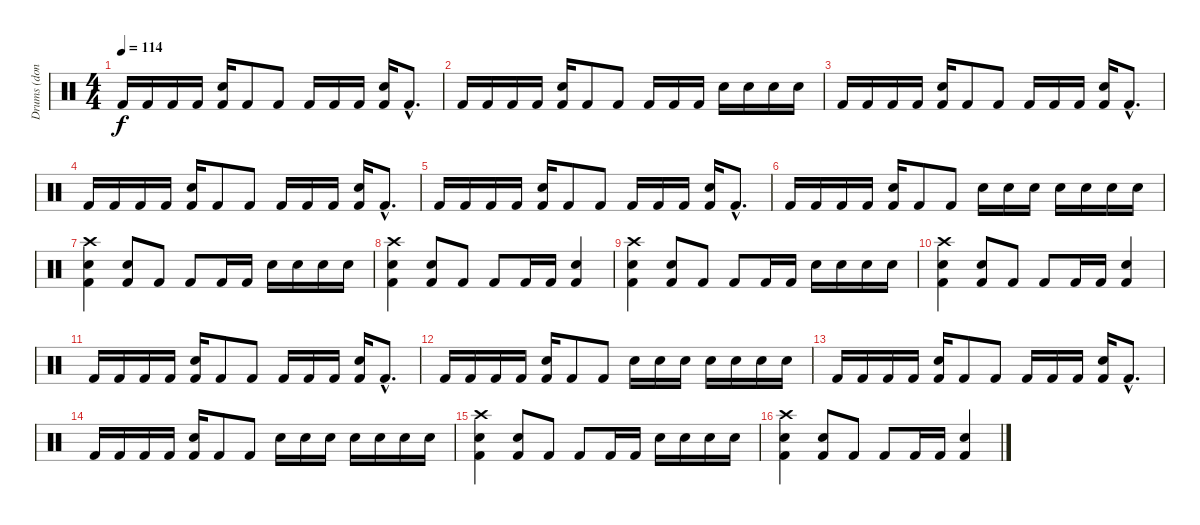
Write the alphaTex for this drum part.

\track ("Drums (done badly)" "Drums (don") {instrument percussion}
\staff {score}
\articulation defaults
\ts (4 4)
\tempo 114
\clef neutral
\ks c "Kick (hit) 2".16{dy f} "Kick (hit) 2".16 "Kick (hit) 2".16 "Kick (hit) 2".16
("Snare (hit) 2" "Kick (hit) 2").16 "Kick (hit) 2".8 "Kick (hit) 2".8 "Kick (hit) 2".16 "Kick (hit) 2".16 "Kick (hit) 2".16 ("Snare (hit) 2" "Kick (hit) 2").16 "Kick (hit) 2"{hac}.8{d} |
"Kick (hit) 2".16 "Kick (hit) 2".16 "Kick (hit) 2".16 "Kick (hit) 2".16 ("Snare (hit) 2" "Kick (hit) 2").16 "Kick (hit) 2".8 "Kick (hit) 2".8 "Kick (hit) 2".16 "Kick (hit) 2".16 "Kick (hit) 2".16 "Snare (hit) 2".16 "Snare (hit) 2".16 "Snare (hit) 2".16 "Snare (hit) 2".16 |
"Kick (hit) 2".16 "Kick (hit) 2".16 "Kick (hit) 2".16 "Kick (hit) 2".16 ("Snare (hit) 2" "Kick (hit) 2").16 "Kick (hit) 2".8 "Kick (hit) 2".8 "Kick (hit) 2".16 "Kick (hit) 2".16 "Kick (hit) 2".16 ("Snare (hit) 2" "Kick (hit) 2").16 "Kick (hit) 2"{hac}.8{d} |
"Kick (hit) 2".16 "Kick (hit) 2".16 "Kick (hit) 2".16 "Kick (hit) 2".16 ("Snare (hit) 2" "Kick (hit) 2").16 "Kick (hit) 2".8 "Kick (hit) 2".8 "Kick (hit) 2".16 "Kick (hit) 2".16 "Kick (hit) 2".16 ("Snare (hit) 2" "Kick (hit) 2").16 "Kick (hit) 2"{hac}.8{d} |
"Kick (hit) 2".16 "Kick (hit) 2".16 "Kick (hit) 2".16 "Kick (hit) 2".16 ("Snare (hit) 2" "Kick (hit) 2").16 "Kick (hit) 2".8 "Kick (hit) 2".8 "Kick (hit) 2".16 "Kick (hit) 2".16 "Kick (hit) 2".16 ("Snare (hit) 2" "Kick (hit) 2").16 "Kick (hit) 2"{hac}.8{d} |
"Kick (hit) 2".16 "Kick (hit) 2".16 "Kick (hit) 2".16 "Kick (hit) 2".16 ("Snare (hit) 2" "Kick (hit) 2").16 "Kick (hit) 2".8 "Kick (hit) 2".8 "Snare (hit) 2".16 "Snare (hit) 2".16 "Snare (hit) 2".16 "Snare (hit) 2".16 "Snare (hit) 2".16 "Snare (hit) 2".16 "Snare (hit) 2".16 |
("Crash high (hit)" "Snare (hit) 2" "Kick (hit) 2").4 ("Snare (hit) 2" "Kick (hit) 2").8 "Kick (hit) 2".8 "Kick (hit) 2".8 "Kick (hit) 2".16 "Kick (hit) 2".16 "Snare (hit) 2".16 "Snare (hit) 2".16 "Snare (hit) 2".16 "Snare (hit) 2".16 |
("Crash high (hit)" "Snare (hit) 2" "Kick (hit) 2").4 ("Snare (hit) 2" "Kick (hit) 2").8 "Kick (hit) 2".8 "Kick (hit) 2".8 "Kick (hit) 2".16 "Kick (hit) 2".16 ("Snare (hit) 2" "Kick (hit) 2").4 |
("Crash high (hit)" "Snare (hit) 2" "Kick (hit) 2").4 ("Snare (hit) 2" "Kick (hit) 2").8 "Kick (hit) 2".8 "Kick (hit) 2".8 "Kick (hit) 2".16 "Kick (hit) 2".16 "Snare (hit) 2".16 "Snare (hit) 2".16 "Snare (hit) 2".16 "Snare (hit) 2".16 |
("Crash high (hit)" "Snare (hit) 2" "Kick (hit) 2").4 ("Snare (hit) 2" "Kick (hit) 2").8 "Kick (hit) 2".8 "Kick (hit) 2".8 "Kick (hit) 2".16 "Kick (hit) 2".16 ("Snare (hit) 2" "Kick (hit) 2").4 |
"Kick (hit) 2".16 "Kick (hit) 2".16 "Kick (hit) 2".16 "Kick (hit) 2".16 ("Snare (hit) 2" "Kick (hit) 2").16 "Kick (hit) 2".8 "Kick (hit) 2".8 "Kick (hit) 2".16 "Kick (hit) 2".16 "Kick (hit) 2".16 ("Snare (hit) 2" "Kick (hit) 2").16 "Kick (hit) 2"{hac}.8{d} |
"Kick (hit) 2".16 "Kick (hit) 2".16 "Kick (hit) 2".16 "Kick (hit) 2".16 ("Snare (hit) 2" "Kick (hit) 2").16 "Kick (hit) 2".8 "Kick (hit) 2".8 "Snare (hit) 2".16 "Snare (hit) 2".16 "Snare (hit) 2".16 "Snare (hit) 2".16 "Snare (hit) 2".16 "Snare (hit) 2".16 "Snare (hit) 2".16 |
"Kick (hit) 2".16 "Kick (hit) 2".16 "Kick (hit) 2".16 "Kick (hit) 2".16 ("Snare (hit) 2" "Kick (hit) 2").16 "Kick (hit) 2".8 "Kick (hit) 2".8 "Kick (hit) 2".16 "Kick (hit) 2".16 "Kick (hit) 2".16 ("Snare (hit) 2" "Kick (hit) 2").16 "Kick (hit) 2"{hac}.8{d} |
"Kick (hit) 2".16 "Kick (hit) 2".16 "Kick (hit) 2".16 "Kick (hit) 2".16 ("Snare (hit) 2" "Kick (hit) 2").16 "Kick (hit) 2".8 "Kick (hit) 2".8 "Snare (hit) 2".16 "Snare (hit) 2".16 "Snare (hit) 2".16 "Snare (hit) 2".16 "Snare (hit) 2".16 "Snare (hit) 2".16 "Snare (hit) 2".16 |
("Crash high (hit)" "Snare (hit) 2" "Kick (hit) 2").4 ("Snare (hit) 2" "Kick (hit) 2").8 "Kick (hit) 2".8 "Kick (hit) 2".8 "Kick (hit) 2".16 "Kick (hit) 2".16 "Snare (hit) 2".16 "Snare (hit) 2".16 "Snare (hit) 2".16 "Snare (hit) 2".16 |
("Crash high (hit)" "Snare (hit) 2" "Kick (hit) 2").4 ("Snare (hit) 2" "Kick (hit) 2").8 "Kick (hit) 2".8 "Kick (hit) 2".8 "Kick (hit) 2".16 "Kick (hit) 2".16 ("Snare (hit) 2" "Kick (hit) 2").4
